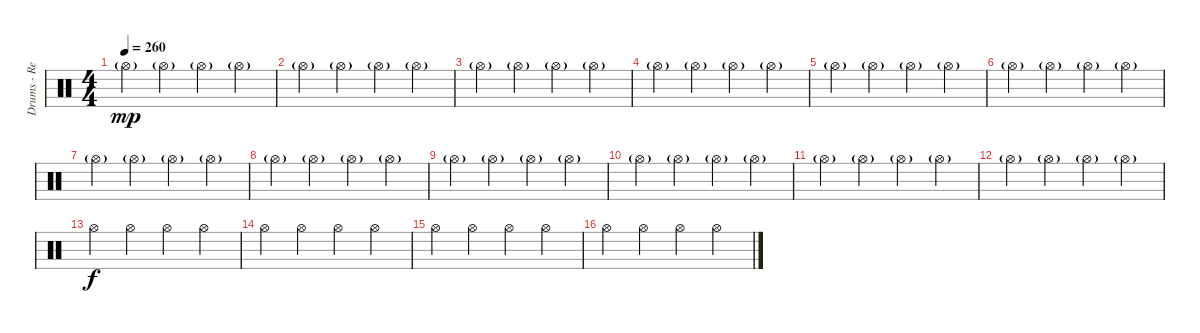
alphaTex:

\track ("Drums - Re'a Mochiach" "Drums - Re") {instrument percussion}
\staff {score}
\articulation defaults
\ts (4 4)
\tempo 260
\clef neutral
\ks c "Hi-Hat (open)"{g}.4{dy mp} "Hi-Hat (open)"{g}.4 "Hi-Hat (open)"{g}.4 "Hi-Hat (open)"{g}.4
|
"Hi-Hat (open)"{g}.4 "Hi-Hat (open)"{g}.4 "Hi-Hat (open)"{g}.4 "Hi-Hat (open)"{g}.4 |
"Hi-Hat (open)"{g}.4 "Hi-Hat (open)"{g}.4 "Hi-Hat (open)"{g}.4 "Hi-Hat (open)"{g}.4 |
"Hi-Hat (open)"{g}.4 "Hi-Hat (open)"{g}.4 "Hi-Hat (open)"{g}.4 "Hi-Hat (open)"{g}.4 |
"Hi-Hat (open)"{g}.4 "Hi-Hat (open)"{g}.4 "Hi-Hat (open)"{g}.4 "Hi-Hat (open)"{g}.4 |
"Hi-Hat (open)"{g}.4 "Hi-Hat (open)"{g}.4 "Hi-Hat (open)"{g}.4 "Hi-Hat (open)"{g}.4 |
"Hi-Hat (open)"{g}.4 "Hi-Hat (open)"{g}.4 "Hi-Hat (open)"{g}.4 "Hi-Hat (open)"{g}.4 |
"Hi-Hat (open)"{g}.4 "Hi-Hat (open)"{g}.4 "Hi-Hat (open)"{g}.4 "Hi-Hat (open)"{g}.4 |
"Hi-Hat (open)"{g}.4 "Hi-Hat (open)"{g}.4 "Hi-Hat (open)"{g}.4 "Hi-Hat (open)"{g}.4 |
"Hi-Hat (open)"{g}.4 "Hi-Hat (open)"{g}.4 "Hi-Hat (open)"{g}.4 "Hi-Hat (open)"{g}.4 |
"Hi-Hat (open)"{g}.4 "Hi-Hat (open)"{g}.4 "Hi-Hat (open)"{g}.4 "Hi-Hat (open)"{g}.4 |
"Hi-Hat (open)"{g}.4 "Hi-Hat (open)"{g}.4 "Hi-Hat (open)"{g}.4 "Hi-Hat (open)"{g}.4 |
"Hi-Hat (open)".4{dy f} "Hi-Hat (open)".4 "Hi-Hat (open)".4 "Hi-Hat (open)".4 |
"Hi-Hat (open)".4 "Hi-Hat (open)".4 "Hi-Hat (open)".4 "Hi-Hat (open)".4 |
"Hi-Hat (open)".4 "Hi-Hat (open)".4 "Hi-Hat (open)".4 "Hi-Hat (open)".4 |
"Hi-Hat (open)".4 "Hi-Hat (open)".4 "Hi-Hat (open)".4 "Hi-Hat (open)".4
